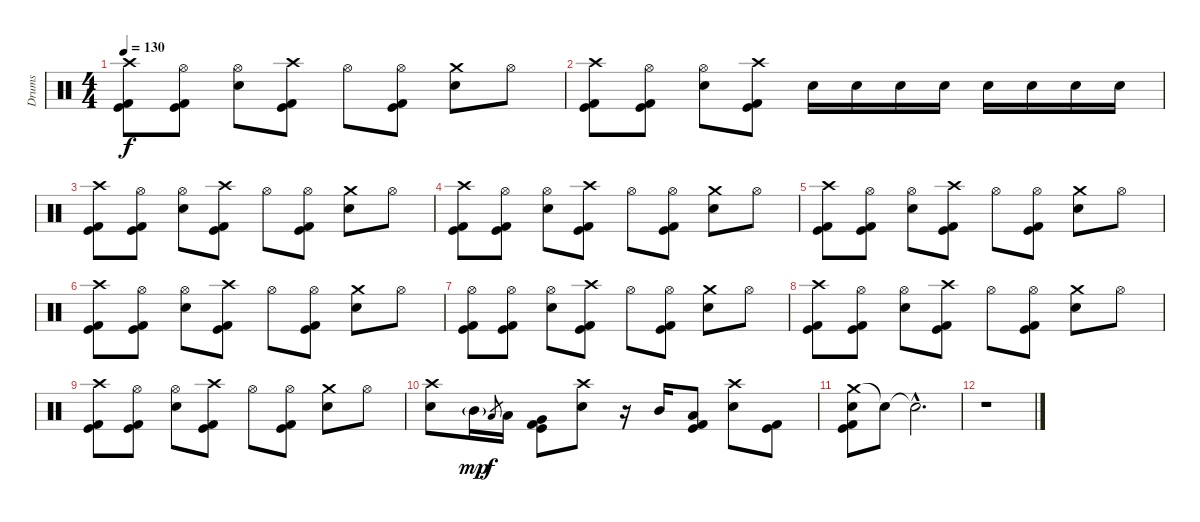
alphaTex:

\track ("Drums" "Drums") {instrument percussion}
\staff {score}
\articulation defaults
\ts (4 4)
\tempo 130
\clef neutral
\ks c
("Crash high (hit)" "Kick (hit) 2" "Kick (hit)").8{dy f} ("Hi-Hat (open)" "Kick (hit) 2" "Kick (hit)").8 ("Hi-Hat (open)" "Electric Snare (hit)").8 ("Crash high (hit)" "Kick (hit) 2" "Kick (hit)").8 "Hi-Hat (open)".8 ("Hi-Hat (open)" "Kick (hit) 2" "Kick (hit)").8 ("Crash medium (hit)" "Electric Snare (hit)").8 "Hi-Hat (open)".8 |
("Crash high (hit)" "Kick (hit) 2" "Kick (hit)").8 ("Hi-Hat (open)" "Kick (hit) 2" "Kick (hit)").8 ("Hi-Hat (open)" "Electric Snare (hit)").8 ("Crash high (hit)" "Kick (hit) 2" "Kick (hit)").8 "Electric Snare (hit)".16 "Electric Snare (hit)".16 "Electric Snare (hit)".16 "Electric Snare (hit)".16 "Electric Snare (hit)".16 "Electric Snare (hit)".16 "Electric Snare (hit)".16 "Electric Snare (hit)".16 |
("Crash high (hit)" "Kick (hit) 2" "Kick (hit)").8 ("Hi-Hat (open)" "Kick (hit) 2" "Kick (hit)").8 ("Hi-Hat (open)" "Electric Snare (hit)").8 ("Crash high (hit)" "Kick (hit) 2" "Kick (hit)").8 "Hi-Hat (open)".8 ("Hi-Hat (open)" "Kick (hit) 2" "Kick (hit)").8 ("Crash medium (hit)" "Electric Snare (hit)").8 "Hi-Hat (open)".8 |
("Crash high (hit)" "Kick (hit) 2" "Kick (hit)").8 ("Hi-Hat (open)" "Kick (hit) 2" "Kick (hit)").8 ("Hi-Hat (open)" "Electric Snare (hit)").8 ("Crash high (hit)" "Kick (hit) 2" "Kick (hit)").8 "Hi-Hat (open)".8 ("Hi-Hat (open)" "Kick (hit) 2" "Kick (hit)").8 ("Crash medium (hit)" "Electric Snare (hit)").8 "Hi-Hat (open)".8 |
("Crash high (hit)" "Kick (hit) 2" "Kick (hit)").8 ("Hi-Hat (open)" "Kick (hit) 2" "Kick (hit)").8 ("Hi-Hat (open)" "Electric Snare (hit)").8 ("Crash high (hit)" "Kick (hit) 2" "Kick (hit)").8 "Hi-Hat (open)".8 ("Hi-Hat (open)" "Kick (hit) 2" "Kick (hit)").8 ("Crash medium (hit)" "Electric Snare (hit)").8 "Hi-Hat (open)".8 |
("Crash high (hit)" "Kick (hit) 2" "Kick (hit)").8 ("Hi-Hat (open)" "Kick (hit) 2" "Kick (hit)").8 ("Hi-Hat (open)" "Electric Snare (hit)").8 ("Crash high (hit)" "Kick (hit) 2" "Kick (hit)").8 "Hi-Hat (open)".8 ("Hi-Hat (open)" "Kick (hit) 2" "Kick (hit)").8 ("Crash medium (hit)" "Electric Snare (hit)").8 "Hi-Hat (open)".8 |
("Hi-Hat (open)" "Kick (hit) 2" "Kick (hit)").8 ("Hi-Hat (open)" "Kick (hit) 2" "Kick (hit)").8 ("Hi-Hat (open)" "Electric Snare (hit)").8 ("Crash high (hit)" "Kick (hit) 2" "Kick (hit)").8 "Hi-Hat (open)".8 ("Hi-Hat (open)" "Kick (hit) 2" "Kick (hit)").8 ("Crash medium (hit)" "Electric Snare (hit)").8 "Hi-Hat (open)".8 |
("Crash high (hit)" "Kick (hit) 2" "Kick (hit)").8 ("Hi-Hat (open)" "Kick (hit) 2" "Kick (hit)").8 ("Hi-Hat (open)" "Electric Snare (hit)").8 ("Crash high (hit)" "Kick (hit) 2" "Kick (hit)").8 "Hi-Hat (open)".8 ("Hi-Hat (open)" "Kick (hit) 2" "Kick (hit)").8 ("Crash medium (hit)" "Electric Snare (hit)").8 "Hi-Hat (open)".8 |
("Crash high (hit)" "Kick (hit) 2" "Kick (hit)").8 ("Hi-Hat (open)" "Kick (hit) 2" "Kick (hit)").8 ("Hi-Hat (open)" "Electric Snare (hit)").8 ("Crash high (hit)" "Kick (hit) 2" "Kick (hit)").8 "Hi-Hat (open)".8 ("Hi-Hat (open)" "Kick (hit) 2" "Kick (hit)").8 ("Crash medium (hit)" "Electric Snare (hit)").8 "Hi-Hat (open)".8 |
("Crash high (hit)" "Electric Snare (hit)").8 "Mid Tom (hit)"{g}.16{dy mp} "Low Tom (hit)".8{gr dy f} "Low Tom (hit)".16 ("Very Low Tom (hit)" "Kick (hit) 2" "Kick (hit)").8 ("Crash high (hit)" "Electric Snare (hit)").8 r.16 "Mid Tom (hit)".16 ("Low Tom (hit)" "Kick (hit) 2" "Kick (hit)").8 ("Crash high (hit)" "Electric Snare (hit)").8 ("Kick (hit) 2" "Kick (hit)").8 |
("Crash medium (hit)" "Electric Snare (hit)" "Kick (hit) 2" "Kick (hit)").8 "Snare (hit)"{t}.8 "Snare (hit)"{hac t}.2{d} |
r.1
